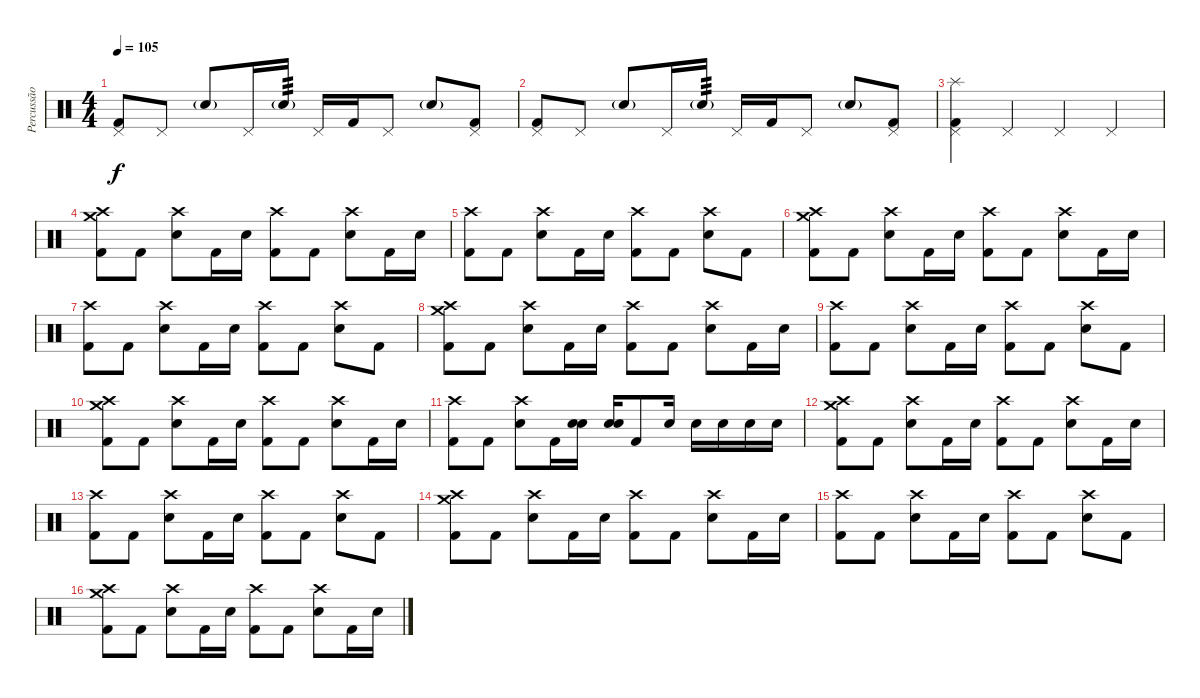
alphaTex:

\track ("Percussão" "Percussão") {instrument percussion}
\staff {score}
\articulation defaults
\ts (4 4)
\tempo 105
\clef neutral
\ks c
("Pedal Hi-Hat (hit)" "Kick (hit) 2").8{dy f} "Pedal Hi-Hat (hit)".8 "Electric Snare (hit)"{g}.8 "Pedal Hi-Hat (hit)".16 "Electric Snare (hit)"{g}.16{tp 3} "Pedal Hi-Hat (hit)".16 "Kick (hit) 2".16 "Pedal Hi-Hat (hit)".8 "Electric Snare (hit)"{g}.8 ("Pedal Hi-Hat (hit)" "Kick (hit) 2").8 |
("Pedal Hi-Hat (hit)" "Kick (hit) 2").8 "Pedal Hi-Hat (hit)".8 "Electric Snare (hit)"{g}.8 "Pedal Hi-Hat (hit)".16 "Electric Snare (hit)"{g}.16{tp 3} "Pedal Hi-Hat (hit)".16 "Kick (hit) 2".16 "Pedal Hi-Hat (hit)".8 "Electric Snare (hit)"{g}.8 ("Pedal Hi-Hat (hit)" "Kick (hit) 2").8 |
("Splash (hit)" "Pedal Hi-Hat (hit)" "Kick (hit) 2").4 "Pedal Hi-Hat (hit)".4 "Pedal Hi-Hat (hit)".4 "Pedal Hi-Hat (hit)".4 |
("Crash medium (hit)" "Crash high (hit)" "Kick (hit) 2").8{volume 16} "Kick (hit) 2".8 ("Crash high (hit)" "Electric Snare (hit)").8 "Kick (hit) 2".16 "Electric Snare (hit)".16 ("Crash high (hit)" "Kick (hit) 2").8 "Kick (hit) 2".8 ("Crash high (hit)" "Electric Snare (hit)").8 "Kick (hit) 2".16 "Electric Snare (hit)".16 |
("Crash high (hit)" "Kick (hit) 2").8 "Kick (hit) 2".8 ("Crash high (hit)" "Electric Snare (hit)").8 "Kick (hit) 2".16 "Electric Snare (hit)".16 ("Crash high (hit)" "Kick (hit) 2").8 "Kick (hit) 2".8 ("Crash high (hit)" "Electric Snare (hit)").8 "Kick (hit) 2".8 |
("Crash medium (hit)" "Crash high (hit)" "Kick (hit) 2").8 "Kick (hit) 2".8 ("Crash high (hit)" "Electric Snare (hit)").8 "Kick (hit) 2".16 "Electric Snare (hit)".16 ("Crash high (hit)" "Kick (hit) 2").8 "Kick (hit) 2".8 ("Crash high (hit)" "Electric Snare (hit)").8 "Kick (hit) 2".16 "Electric Snare (hit)".16 |
("Crash high (hit)" "Kick (hit) 2").8 "Kick (hit) 2".8 ("Crash high (hit)" "Electric Snare (hit)").8 "Kick (hit) 2".16 "Electric Snare (hit)".16 ("Crash high (hit)" "Kick (hit) 2").8 "Kick (hit) 2".8 ("Crash high (hit)" "Electric Snare (hit)").8 "Kick (hit) 2".8 |
("Crash medium (hit)" "Crash high (hit)" "Kick (hit) 2").8 "Kick (hit) 2".8 ("Crash high (hit)" "Electric Snare (hit)").8 "Kick (hit) 2".16 "Electric Snare (hit)".16 ("Crash high (hit)" "Kick (hit) 2").8 "Kick (hit) 2".8 ("Crash high (hit)" "Electric Snare (hit)").8 "Kick (hit) 2".16 "Electric Snare (hit)".16 |
("Crash high (hit)" "Kick (hit) 2").8 "Kick (hit) 2".8 ("Crash high (hit)" "Electric Snare (hit)").8 "Kick (hit) 2".16 "Electric Snare (hit)".16 ("Crash high (hit)" "Kick (hit) 2").8 "Kick (hit) 2".8 ("Crash high (hit)" "Electric Snare (hit)").8 "Kick (hit) 2".8 |
("Crash medium (hit)" "Crash high (hit)" "Kick (hit) 2").8 "Kick (hit) 2".8 ("Crash high (hit)" "Electric Snare (hit)").8 "Kick (hit) 2".16 "Electric Snare (hit)".16 ("Crash high (hit)" "Kick (hit) 2").8 "Kick (hit) 2".8 ("Crash high (hit)" "Electric Snare (hit)").8 "Kick (hit) 2".16 "Electric Snare (hit)".16 |
("Crash high (hit)" "Kick (hit) 2").8 "Kick (hit) 2".8 ("Crash high (hit)" "Electric Snare (hit)").8 "Kick (hit) 2".16 ("Electric Snare (hit)" "Electric Snare (hit)").16{bd 240} ("Electric Snare (hit)" "Electric Snare (hit)").16{bd 240} "Kick (hit) 2".8 "Electric Snare (hit)".16 "Electric Snare (hit)".16 "Electric Snare (hit)".16 "Electric Snare (hit)".16 "Electric Snare (hit)".16 |
("Crash medium (hit)" "Crash high (hit)" "Kick (hit) 2").8 "Kick (hit) 2".8 ("Crash high (hit)" "Electric Snare (hit)").8 "Kick (hit) 2".16 "Electric Snare (hit)".16 ("Crash high (hit)" "Kick (hit) 2").8 "Kick (hit) 2".8 ("Crash high (hit)" "Electric Snare (hit)").8 "Kick (hit) 2".16 "Electric Snare (hit)".16 |
("Crash high (hit)" "Kick (hit) 2").8 "Kick (hit) 2".8 ("Crash high (hit)" "Electric Snare (hit)").8 "Kick (hit) 2".16 "Electric Snare (hit)".16 ("Crash high (hit)" "Kick (hit) 2").8 "Kick (hit) 2".8 ("Crash high (hit)" "Electric Snare (hit)").8 "Kick (hit) 2".8 |
("Crash medium (hit)" "Crash high (hit)" "Kick (hit) 2").8 "Kick (hit) 2".8 ("Crash high (hit)" "Electric Snare (hit)").8 "Kick (hit) 2".16 "Electric Snare (hit)".16 ("Crash high (hit)" "Kick (hit) 2").8 "Kick (hit) 2".8 ("Crash high (hit)" "Electric Snare (hit)").8 "Kick (hit) 2".16 "Electric Snare (hit)".16 |
("Crash high (hit)" "Kick (hit) 2").8 "Kick (hit) 2".8 ("Crash high (hit)" "Electric Snare (hit)").8 "Kick (hit) 2".16 "Electric Snare (hit)".16 ("Crash high (hit)" "Kick (hit) 2").8 "Kick (hit) 2".8 ("Crash high (hit)" "Electric Snare (hit)").8 "Kick (hit) 2".8 |
("Crash medium (hit)" "Crash high (hit)" "Kick (hit) 2").8 "Kick (hit) 2".8 ("Crash high (hit)" "Electric Snare (hit)").8 "Kick (hit) 2".16 "Electric Snare (hit)".16 ("Crash high (hit)" "Kick (hit) 2").8 "Kick (hit) 2".8 ("Crash high (hit)" "Electric Snare (hit)").8 "Kick (hit) 2".16 "Electric Snare (hit)".16
